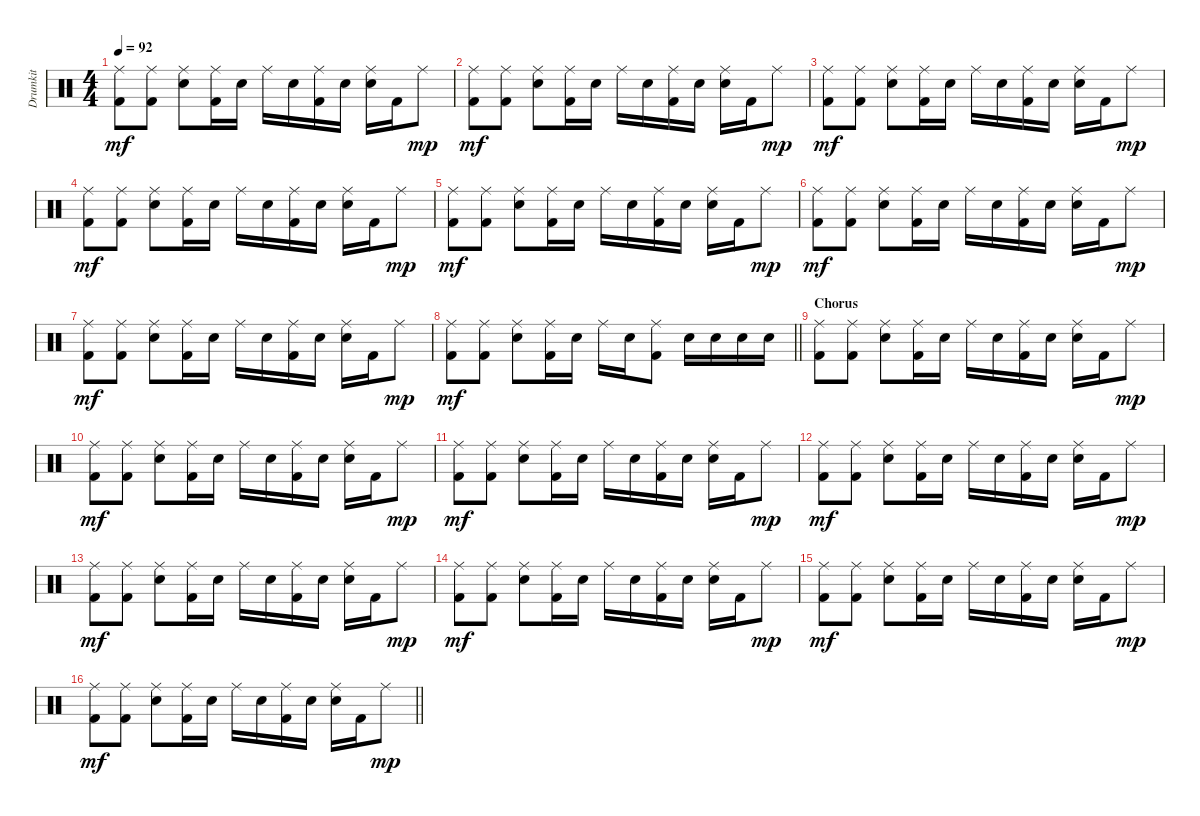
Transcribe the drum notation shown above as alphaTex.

\track ("Drumkit" "Drumkit") {instrument percussion}
\staff {score}
\articulation defaults
\ts (4 4)
\tempo 92
\clef neutral
\ks c
("Ride (middle)" "Kick (hit) 2").8{dy mf} ("Ride (middle)" "Kick (hit) 2").8 ("Ride (middle)" "Snare (hit) 2").8 ("Ride (middle)" "Kick (hit) 2").16 "Snare (hit) 2".16 "Ride (middle)".16 "Snare (hit) 2".16 ("Ride (middle)" "Kick (hit) 2").16 "Snare (hit) 2".16 ("Ride (middle)" "Snare (hit) 2").16 "Kick (hit) 2".16 "Ride (middle)".8{dy mp} |
("Ride (middle)" "Kick (hit) 2").8{dy mf} ("Ride (middle)" "Kick (hit) 2").8 ("Ride (middle)" "Snare (hit) 2").8 ("Ride (middle)" "Kick (hit) 2").16 "Snare (hit) 2".16 "Ride (middle)".16 "Snare (hit) 2".16 ("Ride (middle)" "Kick (hit) 2").16 "Snare (hit) 2".16 ("Ride (middle)" "Snare (hit) 2").16 "Kick (hit) 2".16 "Ride (middle)".8{dy mp} |
("Ride (middle)" "Kick (hit) 2").8{dy mf} ("Ride (middle)" "Kick (hit) 2").8 ("Ride (middle)" "Snare (hit) 2").8 ("Ride (middle)" "Kick (hit) 2").16 "Snare (hit) 2".16 "Ride (middle)".16 "Snare (hit) 2".16 ("Ride (middle)" "Kick (hit) 2").16 "Snare (hit) 2".16 ("Ride (middle)" "Snare (hit) 2").16 "Kick (hit) 2".16 "Ride (middle)".8{dy mp} |
("Ride (middle)" "Kick (hit) 2").8{dy mf} ("Ride (middle)" "Kick (hit) 2").8 ("Ride (middle)" "Snare (hit) 2").8 ("Ride (middle)" "Kick (hit) 2").16 "Snare (hit) 2".16 "Ride (middle)".16 "Snare (hit) 2".16 ("Ride (middle)" "Kick (hit) 2").16 "Snare (hit) 2".16 ("Ride (middle)" "Snare (hit) 2").16 "Kick (hit) 2".16 "Ride (middle)".8{dy mp} |
("Ride (middle)" "Kick (hit) 2").8{dy mf} ("Ride (middle)" "Kick (hit) 2").8 ("Ride (middle)" "Snare (hit) 2").8 ("Ride (middle)" "Kick (hit) 2").16 "Snare (hit) 2".16 "Ride (middle)".16 "Snare (hit) 2".16 ("Ride (middle)" "Kick (hit) 2").16 "Snare (hit) 2".16 ("Ride (middle)" "Snare (hit) 2").16 "Kick (hit) 2".16 "Ride (middle)".8{dy mp} |
("Ride (middle)" "Kick (hit) 2").8{dy mf} ("Ride (middle)" "Kick (hit) 2").8 ("Ride (middle)" "Snare (hit) 2").8 ("Ride (middle)" "Kick (hit) 2").16 "Snare (hit) 2".16 "Ride (middle)".16 "Snare (hit) 2".16 ("Ride (middle)" "Kick (hit) 2").16 "Snare (hit) 2".16 ("Ride (middle)" "Snare (hit) 2").16 "Kick (hit) 2".16 "Ride (middle)".8{dy mp} |
("Ride (middle)" "Kick (hit) 2").8{dy mf} ("Ride (middle)" "Kick (hit) 2").8 ("Ride (middle)" "Snare (hit) 2").8 ("Ride (middle)" "Kick (hit) 2").16 "Snare (hit) 2".16 "Ride (middle)".16 "Snare (hit) 2".16 ("Ride (middle)" "Kick (hit) 2").16 "Snare (hit) 2".16 ("Ride (middle)" "Snare (hit) 2").16 "Kick (hit) 2".16 "Ride (middle)".8{dy mp} |
\barLineRight lightlight
("Ride (middle)" "Kick (hit) 2").8{dy mf} ("Ride (middle)" "Kick (hit) 2").8 ("Ride (middle)" "Snare (hit) 2").8 ("Ride (middle)" "Kick (hit) 2").16 "Snare (hit) 2".16 "Ride (middle)".16 "Snare (hit) 2".16 ("Ride (middle)" "Kick (hit) 2").8 "Snare (hit) 2".16 "Snare (hit) 2".16 "Snare (hit) 2".16 "Snare (hit) 2".16 |
\section ("" "Chorus")
("Ride (middle)" "Kick (hit) 2").8 ("Ride (middle)" "Kick (hit) 2").8 ("Ride (middle)" "Snare (hit) 2").8 ("Ride (middle)" "Kick (hit) 2").16 "Snare (hit) 2".16 "Ride (middle)".16 "Snare (hit) 2".16 ("Ride (middle)" "Kick (hit) 2").16 "Snare (hit) 2".16 ("Ride (middle)" "Snare (hit) 2").16 "Kick (hit) 2".16 "Ride (middle)".8{dy mp} |
("Ride (middle)" "Kick (hit) 2").8{dy mf} ("Ride (middle)" "Kick (hit) 2").8 ("Ride (middle)" "Snare (hit) 2").8 ("Ride (middle)" "Kick (hit) 2").16 "Snare (hit) 2".16 "Ride (middle)".16 "Snare (hit) 2".16 ("Ride (middle)" "Kick (hit) 2").16 "Snare (hit) 2".16 ("Ride (middle)" "Snare (hit) 2").16 "Kick (hit) 2".16 "Ride (middle)".8{dy mp} |
("Ride (middle)" "Kick (hit) 2").8{dy mf} ("Ride (middle)" "Kick (hit) 2").8 ("Ride (middle)" "Snare (hit) 2").8 ("Ride (middle)" "Kick (hit) 2").16 "Snare (hit) 2".16 "Ride (middle)".16 "Snare (hit) 2".16 ("Ride (middle)" "Kick (hit) 2").16 "Snare (hit) 2".16 ("Ride (middle)" "Snare (hit) 2").16 "Kick (hit) 2".16 "Ride (middle)".8{dy mp} |
("Ride (middle)" "Kick (hit) 2").8{dy mf} ("Ride (middle)" "Kick (hit) 2").8 ("Ride (middle)" "Snare (hit) 2").8 ("Ride (middle)" "Kick (hit) 2").16 "Snare (hit) 2".16 "Ride (middle)".16 "Snare (hit) 2".16 ("Ride (middle)" "Kick (hit) 2").16 "Snare (hit) 2".16 ("Ride (middle)" "Snare (hit) 2").16 "Kick (hit) 2".16 "Ride (middle)".8{dy mp} |
("Ride (middle)" "Kick (hit) 2").8{dy mf} ("Ride (middle)" "Kick (hit) 2").8 ("Ride (middle)" "Snare (hit) 2").8 ("Ride (middle)" "Kick (hit) 2").16 "Snare (hit) 2".16 "Ride (middle)".16 "Snare (hit) 2".16 ("Ride (middle)" "Kick (hit) 2").16 "Snare (hit) 2".16 ("Ride (middle)" "Snare (hit) 2").16 "Kick (hit) 2".16 "Ride (middle)".8{dy mp} |
("Ride (middle)" "Kick (hit) 2").8{dy mf} ("Ride (middle)" "Kick (hit) 2").8 ("Ride (middle)" "Snare (hit) 2").8 ("Ride (middle)" "Kick (hit) 2").16 "Snare (hit) 2".16 "Ride (middle)".16 "Snare (hit) 2".16 ("Ride (middle)" "Kick (hit) 2").16 "Snare (hit) 2".16 ("Ride (middle)" "Snare (hit) 2").16 "Kick (hit) 2".16 "Ride (middle)".8{dy mp} |
("Ride (middle)" "Kick (hit) 2").8{dy mf} ("Ride (middle)" "Kick (hit) 2").8 ("Ride (middle)" "Snare (hit) 2").8 ("Ride (middle)" "Kick (hit) 2").16 "Snare (hit) 2".16 "Ride (middle)".16 "Snare (hit) 2".16 ("Ride (middle)" "Kick (hit) 2").16 "Snare (hit) 2".16 ("Ride (middle)" "Snare (hit) 2").16 "Kick (hit) 2".16 "Ride (middle)".8{dy mp} |
\barLineRight lightlight
("Ride (middle)" "Kick (hit) 2").8{dy mf} ("Ride (middle)" "Kick (hit) 2").8 ("Ride (middle)" "Snare (hit) 2").8 ("Ride (middle)" "Kick (hit) 2").16 "Snare (hit) 2".16 "Ride (middle)".16 "Snare (hit) 2".16 ("Ride (middle)" "Kick (hit) 2").16 "Snare (hit) 2".16 ("Ride (middle)" "Snare (hit) 2").16 "Kick (hit) 2".16 "Ride (middle)".8{dy mp}
